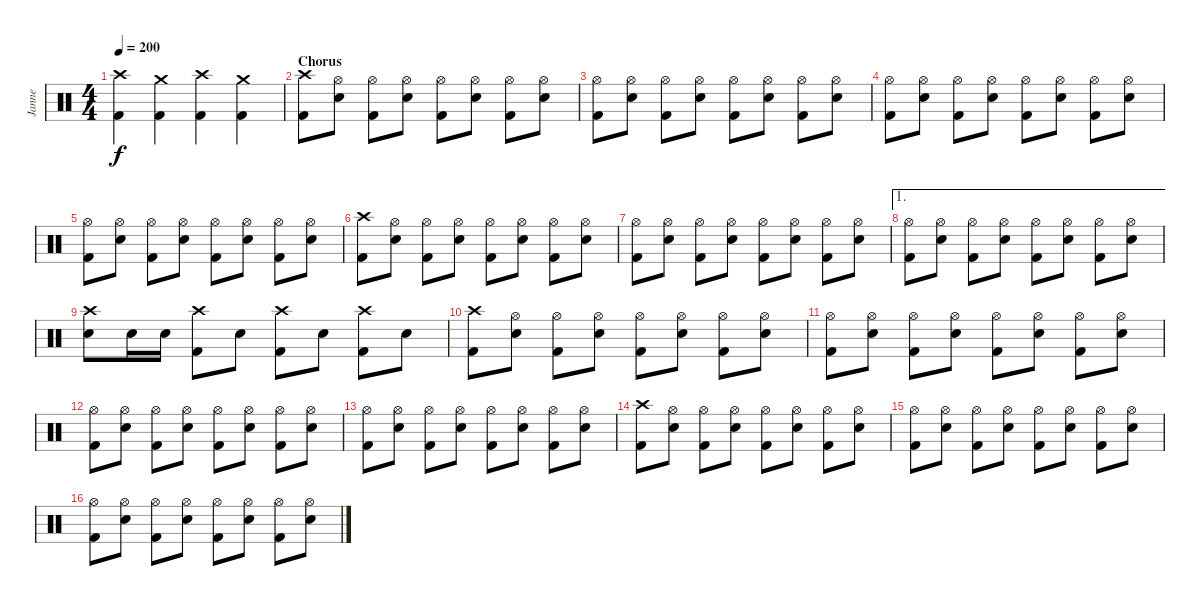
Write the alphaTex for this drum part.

\track ("Janne" "Janne") {instrument percussion}
\staff {score}
\articulation defaults
\ts (4 4)
\tempo 200
\clef neutral
\ks c
("Crash high (hit)" "Kick (hit) 2").4{dy f} ("Crash medium (hit)" "Kick (hit) 2").4 ("Crash high (hit)" "Kick (hit) 2").4 ("Crash medium (hit)" "Kick (hit) 2").4 |
\section ("" "Chorus")
("Crash high (hit)" "Kick (hit) 2").8 ("Hi-Hat (open)" "Electric Snare (hit)").8 ("Hi-Hat (open)" "Kick (hit) 2").8 ("Hi-Hat (open)" "Electric Snare (hit)").8 ("Hi-Hat (open)" "Kick (hit) 2").8 ("Hi-Hat (open)" "Electric Snare (hit)").8 ("Hi-Hat (open)" "Kick (hit) 2").8 ("Hi-Hat (open)" "Electric Snare (hit)").8 |
("Hi-Hat (open)" "Kick (hit) 2").8 ("Hi-Hat (open)" "Electric Snare (hit)").8 ("Hi-Hat (open)" "Kick (hit) 2").8 ("Hi-Hat (open)" "Electric Snare (hit)").8 ("Hi-Hat (open)" "Kick (hit) 2").8 ("Hi-Hat (open)" "Electric Snare (hit)").8 ("Hi-Hat (open)" "Kick (hit) 2").8 ("Hi-Hat (open)" "Electric Snare (hit)").8 |
("Hi-Hat (open)" "Kick (hit) 2").8 ("Hi-Hat (open)" "Electric Snare (hit)").8 ("Hi-Hat (open)" "Kick (hit) 2").8 ("Hi-Hat (open)" "Electric Snare (hit)").8 ("Hi-Hat (open)" "Kick (hit) 2").8 ("Hi-Hat (open)" "Electric Snare (hit)").8 ("Hi-Hat (open)" "Kick (hit) 2").8 ("Hi-Hat (open)" "Electric Snare (hit)").8 |
("Hi-Hat (open)" "Kick (hit) 2").8 ("Hi-Hat (open)" "Electric Snare (hit)").8 ("Hi-Hat (open)" "Kick (hit) 2").8 ("Hi-Hat (open)" "Electric Snare (hit)").8 ("Hi-Hat (open)" "Kick (hit) 2").8 ("Hi-Hat (open)" "Electric Snare (hit)").8 ("Hi-Hat (open)" "Kick (hit) 2").8 ("Hi-Hat (open)" "Electric Snare (hit)").8 |
("Crash high (hit)" "Kick (hit) 2").8 ("Hi-Hat (open)" "Electric Snare (hit)").8 ("Hi-Hat (open)" "Kick (hit) 2").8 ("Hi-Hat (open)" "Electric Snare (hit)").8 ("Hi-Hat (open)" "Kick (hit) 2").8 ("Hi-Hat (open)" "Electric Snare (hit)").8 ("Hi-Hat (open)" "Kick (hit) 2").8 ("Hi-Hat (open)" "Electric Snare (hit)").8 |
("Hi-Hat (open)" "Kick (hit) 2").8 ("Hi-Hat (open)" "Electric Snare (hit)").8 ("Hi-Hat (open)" "Kick (hit) 2").8 ("Hi-Hat (open)" "Electric Snare (hit)").8 ("Hi-Hat (open)" "Kick (hit) 2").8 ("Hi-Hat (open)" "Electric Snare (hit)").8 ("Hi-Hat (open)" "Kick (hit) 2").8 ("Hi-Hat (open)" "Electric Snare (hit)").8 |
\ae 1
("Hi-Hat (open)" "Kick (hit) 2").8 ("Hi-Hat (open)" "Electric Snare (hit)").8 ("Hi-Hat (open)" "Kick (hit) 2").8 ("Hi-Hat (open)" "Electric Snare (hit)").8 ("Hi-Hat (open)" "Kick (hit) 2").8 ("Hi-Hat (open)" "Electric Snare (hit)").8 ("Hi-Hat (open)" "Kick (hit) 2").8 ("Hi-Hat (open)" "Electric Snare (hit)").8 |
("Crash high (hit)" "Electric Snare (hit)").8 "Electric Snare (hit)".16 "Electric Snare (hit)".16 ("Crash high (hit)" "Kick (hit) 2").8 "Electric Snare (hit)".8 ("Crash high (hit)" "Kick (hit) 2").8 "Electric Snare (hit)".8 ("Crash high (hit)" "Kick (hit) 2").8 "Electric Snare (hit)".8 |
("Crash high (hit)" "Kick (hit) 2").8 ("Hi-Hat (open)" "Electric Snare (hit)").8 ("Hi-Hat (open)" "Kick (hit) 2").8 ("Hi-Hat (open)" "Electric Snare (hit)").8 ("Hi-Hat (open)" "Kick (hit) 2").8 ("Hi-Hat (open)" "Electric Snare (hit)").8 ("Hi-Hat (open)" "Kick (hit) 2").8 ("Hi-Hat (open)" "Electric Snare (hit)").8 |
("Hi-Hat (open)" "Kick (hit) 2").8 ("Hi-Hat (open)" "Electric Snare (hit)").8 ("Hi-Hat (open)" "Kick (hit) 2").8 ("Hi-Hat (open)" "Electric Snare (hit)").8 ("Hi-Hat (open)" "Kick (hit) 2").8 ("Hi-Hat (open)" "Electric Snare (hit)").8 ("Hi-Hat (open)" "Kick (hit) 2").8 ("Hi-Hat (open)" "Electric Snare (hit)").8 |
("Hi-Hat (open)" "Kick (hit) 2").8 ("Hi-Hat (open)" "Electric Snare (hit)").8 ("Hi-Hat (open)" "Kick (hit) 2").8 ("Hi-Hat (open)" "Electric Snare (hit)").8 ("Hi-Hat (open)" "Kick (hit) 2").8 ("Hi-Hat (open)" "Electric Snare (hit)").8 ("Hi-Hat (open)" "Kick (hit) 2").8 ("Hi-Hat (open)" "Electric Snare (hit)").8 |
("Hi-Hat (open)" "Kick (hit) 2").8 ("Hi-Hat (open)" "Electric Snare (hit)").8 ("Hi-Hat (open)" "Kick (hit) 2").8 ("Hi-Hat (open)" "Electric Snare (hit)").8 ("Hi-Hat (open)" "Kick (hit) 2").8 ("Hi-Hat (open)" "Electric Snare (hit)").8 ("Hi-Hat (open)" "Kick (hit) 2").8 ("Hi-Hat (open)" "Electric Snare (hit)").8 |
("Crash high (hit)" "Kick (hit) 2").8 ("Hi-Hat (open)" "Electric Snare (hit)").8 ("Hi-Hat (open)" "Kick (hit) 2").8 ("Hi-Hat (open)" "Electric Snare (hit)").8 ("Hi-Hat (open)" "Kick (hit) 2").8 ("Hi-Hat (open)" "Electric Snare (hit)").8 ("Hi-Hat (open)" "Kick (hit) 2").8 ("Hi-Hat (open)" "Electric Snare (hit)").8 |
("Hi-Hat (open)" "Kick (hit) 2").8 ("Hi-Hat (open)" "Electric Snare (hit)").8 ("Hi-Hat (open)" "Kick (hit) 2").8 ("Hi-Hat (open)" "Electric Snare (hit)").8 ("Hi-Hat (open)" "Kick (hit) 2").8 ("Hi-Hat (open)" "Electric Snare (hit)").8 ("Hi-Hat (open)" "Kick (hit) 2").8 ("Hi-Hat (open)" "Electric Snare (hit)").8 |
("Hi-Hat (open)" "Kick (hit) 2").8 ("Hi-Hat (open)" "Electric Snare (hit)").8 ("Hi-Hat (open)" "Kick (hit) 2").8 ("Hi-Hat (open)" "Electric Snare (hit)").8 ("Hi-Hat (open)" "Kick (hit) 2").8 ("Hi-Hat (open)" "Electric Snare (hit)").8 ("Hi-Hat (open)" "Kick (hit) 2").8 ("Hi-Hat (open)" "Electric Snare (hit)").8
